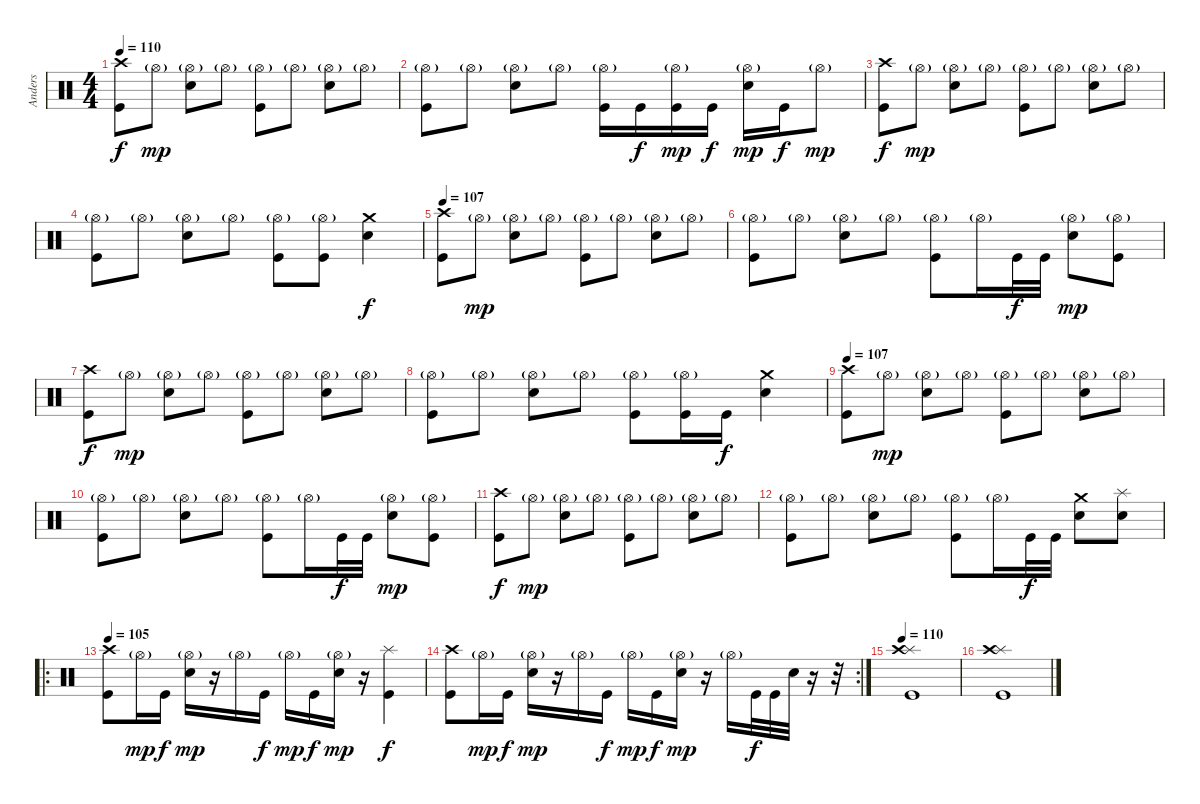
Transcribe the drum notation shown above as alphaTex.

\track ("Anders" "Anders") {instrument percussion}
\staff {score}
\articulation defaults
\ts (4 4)
\tempo 110
\clef neutral
\ks c
("Crash high (hit)" "Kick (hit)").8{dy f} "Hi-Hat (open)"{g}.8{dy mp} ("Hi-Hat (open)"{g} "Snare (hit) 2").8 "Hi-Hat (open)"{g}.8 ("Hi-Hat (open)"{g} "Kick (hit)").8 "Hi-Hat (open)"{g}.8 ("Hi-Hat (open)"{g} "Snare (hit) 2").8 "Hi-Hat (open)"{g}.8 |
("Hi-Hat (open)"{g} "Kick (hit)").8 "Hi-Hat (open)"{g}.8 ("Hi-Hat (open)"{g} "Snare (hit) 2").8 "Hi-Hat (open)"{g}.8 ("Hi-Hat (open)"{g} "Kick (hit)").16 "Kick (hit)".16{dy f} ("Hi-Hat (open)"{g} "Kick (hit)").16{dy mp} "Kick (hit)".16{dy f} ("Hi-Hat (open)"{g} "Snare (hit) 2").16{dy mp} "Kick (hit)".16{dy f} "Hi-Hat (open)"{g}.8{dy mp} |
("Crash high (hit)" "Kick (hit)").8{dy f} "Hi-Hat (open)"{g}.8{dy mp} ("Hi-Hat (open)"{g} "Snare (hit) 2").8 "Hi-Hat (open)"{g}.8 ("Hi-Hat (open)"{g} "Kick (hit)").8 "Hi-Hat (open)"{g}.8 ("Hi-Hat (open)"{g} "Snare (hit) 2").8 "Hi-Hat (open)"{g}.8 |
("Hi-Hat (open)"{g} "Kick (hit)").8 "Hi-Hat (open)"{g}.8 ("Hi-Hat (open)"{g} "Snare (hit) 2").8 "Hi-Hat (open)"{g}.8 ("Hi-Hat (open)"{g} "Kick (hit)").8 ("Hi-Hat (open)"{g} "Kick (hit)").8 ("Crash medium (hit)" "Snare (hit) 2").4{dy f} |
\tempo 110
\tempo 107
("Crash high (hit)" "Kick (hit)").8 "Hi-Hat (open)"{g}.8{dy mp} ("Hi-Hat (open)"{g} "Snare (hit) 2").8 "Hi-Hat (open)"{g}.8 ("Hi-Hat (open)"{g} "Kick (hit)").8 "Hi-Hat (open)"{g}.8 ("Hi-Hat (open)"{g} "Snare (hit) 2").8 "Hi-Hat (open)"{g}.8 |
("Hi-Hat (open)"{g} "Kick (hit)").8 "Hi-Hat (open)"{g}.8 ("Hi-Hat (open)"{g} "Snare (hit) 2").8 "Hi-Hat (open)"{g}.8 ("Hi-Hat (open)"{g} "Kick (hit)").8 "Hi-Hat (open)"{g}.16 "Kick (hit)".32{dy f} "Kick (hit)".32 ("Hi-Hat (open)"{g} "Snare (hit) 2").8{dy mp} ("Hi-Hat (open)"{g} "Kick (hit)").8 |
("Crash high (hit)" "Kick (hit)").8{dy f} "Hi-Hat (open)"{g}.8{dy mp} ("Hi-Hat (open)"{g} "Snare (hit) 2").8 "Hi-Hat (open)"{g}.8 ("Hi-Hat (open)"{g} "Kick (hit)").8 "Hi-Hat (open)"{g}.8 ("Hi-Hat (open)"{g} "Snare (hit) 2").8 "Hi-Hat (open)"{g}.8 |
("Hi-Hat (open)"{g} "Kick (hit)").8 "Hi-Hat (open)"{g}.8 ("Hi-Hat (open)"{g} "Snare (hit) 2").8 "Hi-Hat (open)"{g}.8 ("Hi-Hat (open)"{g} "Kick (hit)").8 ("Hi-Hat (open)"{g} "Kick (hit)").16 "Kick (hit)".16{dy f} ("Crash medium (hit)" "Snare (hit) 2").4 |
\tempo 110
\tempo 107
("Crash high (hit)" "Kick (hit)").8 "Hi-Hat (open)"{g}.8{dy mp} ("Hi-Hat (open)"{g} "Snare (hit) 2").8 "Hi-Hat (open)"{g}.8 ("Hi-Hat (open)"{g} "Kick (hit)").8 "Hi-Hat (open)"{g}.8 ("Hi-Hat (open)"{g} "Snare (hit) 2").8 "Hi-Hat (open)"{g}.8 |
("Hi-Hat (open)"{g} "Kick (hit)").8 "Hi-Hat (open)"{g}.8 ("Hi-Hat (open)"{g} "Snare (hit) 2").8 "Hi-Hat (open)"{g}.8 ("Hi-Hat (open)"{g} "Kick (hit)").8 "Hi-Hat (open)"{g}.16 "Kick (hit)".32{dy f} "Kick (hit)".32 ("Hi-Hat (open)"{g} "Snare (hit) 2").8{dy mp} ("Hi-Hat (open)"{g} "Kick (hit)").8 |
("Crash high (hit)" "Kick (hit)").8{dy f} "Hi-Hat (open)"{g}.8{dy mp} ("Hi-Hat (open)"{g} "Snare (hit) 2").8 "Hi-Hat (open)"{g}.8 ("Hi-Hat (open)"{g} "Kick (hit)").8 "Hi-Hat (open)"{g}.8 ("Hi-Hat (open)"{g} "Snare (hit) 2").8 "Hi-Hat (open)"{g}.8 |
("Hi-Hat (open)"{g} "Kick (hit)").8 "Hi-Hat (open)"{g}.8 ("Hi-Hat (open)"{g} "Snare (hit) 2").8 "Hi-Hat (open)"{g}.8 ("Hi-Hat (open)"{g} "Kick (hit)").8 "Hi-Hat (open)"{g}.16 "Kick (hit)".32{dy f} "Kick (hit)".32 ("Crash medium (hit)" "Snare (hit) 2").8 ("Splash (hit)" "Snare (hit) 2").8 |
\ro
\tempo 105
("Crash high (hit)" "Kick (hit)").8 "Hi-Hat (open)"{g}.16{dy mp} "Kick (hit)".16{dy f} ("Hi-Hat (open)"{g} "Snare (hit) 2").16{dy mp} r.16 "Hi-Hat (open)"{g}.16 "Kick (hit)".16{dy f} "Hi-Hat (open)"{g}.16{dy mp} "Kick (hit)".16{dy f} ("Hi-Hat (open)"{g} "Snare (hit) 2").16{dy mp} r.16 ("Splash (hit)" "Kick (hit)").4{dy f} |
\rc 2
("Crash high (hit)" "Kick (hit)").8 "Hi-Hat (open)"{g}.16{dy mp} "Kick (hit)".16{dy f} ("Hi-Hat (open)"{g} "Snare (hit) 2").16{dy mp} r.16 "Hi-Hat (open)"{g}.16 "Kick (hit)".16{dy f} "Hi-Hat (open)"{g}.16{dy mp} "Kick (hit)".16{dy f} ("Hi-Hat (open)"{g} "Snare (hit) 2").16{dy mp} r.16 "Hi-Hat (open)"{g}.16 "Kick (hit)".32{dy f} "Kick (hit)".32 "Snare (hit) 2".32 r.16 r.32 |
\tempo 110
("Splash (hit)" "Crash high (hit)" "Kick (hit)").1 |
("Splash (hit)" "Crash high (hit)" "Kick (hit)").1
